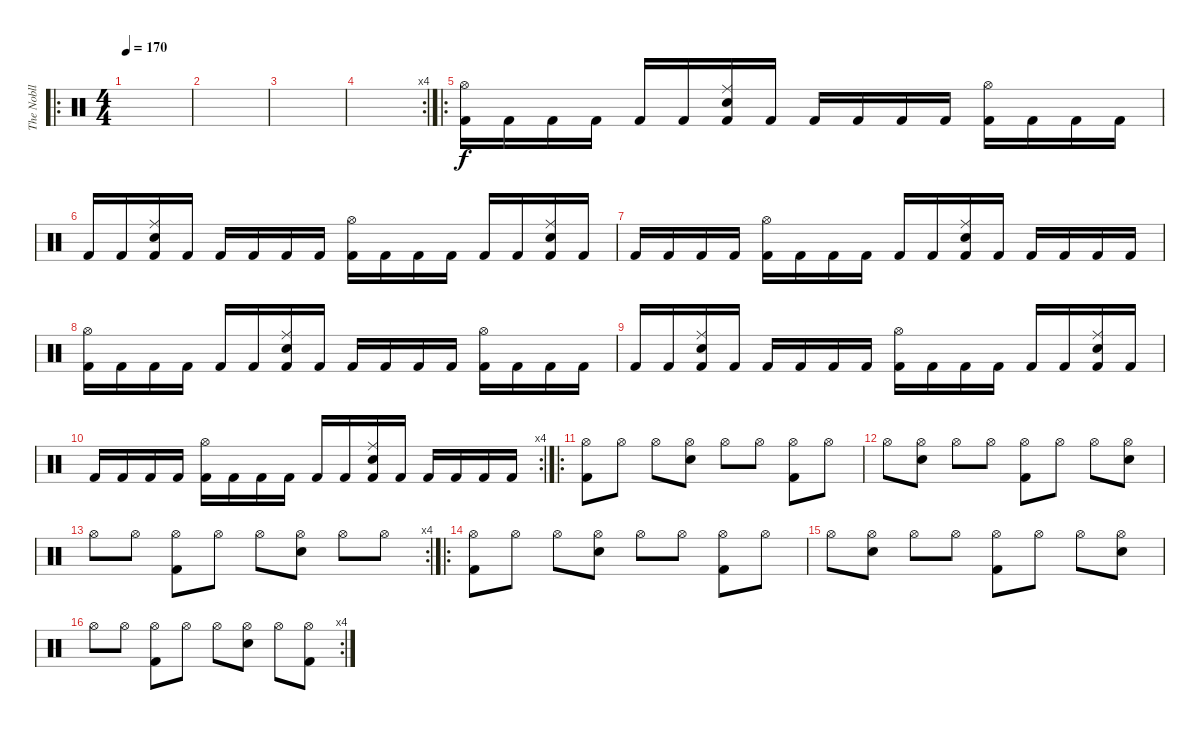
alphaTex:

\track ("The Nobll" "The Nobll") {instrument percussion}
\staff {score}
\articulation defaults
\ro
\ts (4 4)
\tempo 170
\clef neutral
\ks c
|
|
|
\rc 4
|
\ro
("Hi-Hat (open)" "Kick (hit) 2").16 "Kick (hit) 2".16 "Kick (hit) 2".16 "Kick (hit) 2".16 "Kick (hit) 2".16 "Kick (hit) 2".16 ("Ride (middle)" "Snare (hit) 2" "Kick (hit) 2").16 "Kick (hit) 2".16 "Kick (hit) 2".16 "Kick (hit) 2".16 "Kick (hit) 2".16 "Kick (hit) 2".16 ("Hi-Hat (open)" "Kick (hit) 2").16 "Kick (hit) 2".16 "Kick (hit) 2".16 "Kick (hit) 2".16 |
"Kick (hit) 2".16 "Kick (hit) 2".16 ("Ride (middle)" "Snare (hit) 2" "Kick (hit) 2").16 "Kick (hit) 2".16 "Kick (hit) 2".16 "Kick (hit) 2".16 "Kick (hit) 2".16 "Kick (hit) 2".16 ("Hi-Hat (open)" "Kick (hit) 2").16 "Kick (hit) 2".16 "Kick (hit) 2".16 "Kick (hit) 2".16 "Kick (hit) 2".16 "Kick (hit) 2".16 ("Ride (middle)" "Snare (hit) 2" "Kick (hit) 2").16 "Kick (hit) 2".16 |
"Kick (hit) 2".16 "Kick (hit) 2".16 "Kick (hit) 2".16 "Kick (hit) 2".16 ("Hi-Hat (open)" "Kick (hit) 2").16 "Kick (hit) 2".16 "Kick (hit) 2".16 "Kick (hit) 2".16 "Kick (hit) 2".16 "Kick (hit) 2".16 ("Ride (middle)" "Snare (hit) 2" "Kick (hit) 2").16 "Kick (hit) 2".16 "Kick (hit) 2".16 "Kick (hit) 2".16 "Kick (hit) 2".16 "Kick (hit) 2".16 |
("Hi-Hat (open)" "Kick (hit) 2").16 "Kick (hit) 2".16 "Kick (hit) 2".16 "Kick (hit) 2".16 "Kick (hit) 2".16 "Kick (hit) 2".16 ("Ride (middle)" "Snare (hit) 2" "Kick (hit) 2").16 "Kick (hit) 2".16 "Kick (hit) 2".16 "Kick (hit) 2".16 "Kick (hit) 2".16 "Kick (hit) 2".16 ("Hi-Hat (open)" "Kick (hit) 2").16 "Kick (hit) 2".16 "Kick (hit) 2".16 "Kick (hit) 2".16 |
"Kick (hit) 2".16 "Kick (hit) 2".16 ("Ride (middle)" "Snare (hit) 2" "Kick (hit) 2").16 "Kick (hit) 2".16 "Kick (hit) 2".16 "Kick (hit) 2".16 "Kick (hit) 2".16 "Kick (hit) 2".16 ("Hi-Hat (open)" "Kick (hit) 2").16 "Kick (hit) 2".16 "Kick (hit) 2".16 "Kick (hit) 2".16 "Kick (hit) 2".16 "Kick (hit) 2".16 ("Ride (middle)" "Snare (hit) 2" "Kick (hit) 2").16 "Kick (hit) 2".16 |
\rc 4 "Kick (hit) 2".16 "Kick (hit) 2".16 "Kick (hit) 2".16 "Kick (hit) 2".16
("Hi-Hat (open)" "Kick (hit) 2").16 "Kick (hit) 2".16 "Kick (hit) 2".16 "Kick (hit) 2".16 "Kick (hit) 2".16 "Kick (hit) 2".16 ("Ride (middle)" "Snare (hit) 2" "Kick (hit) 2").16 "Kick (hit) 2".16 "Kick (hit) 2".16 "Kick (hit) 2".16 "Kick (hit) 2".16 "Kick (hit) 2".16 |
\ro
("Hi-Hat (open)" "Kick (hit) 2").8 "Hi-Hat (open)".8 "Hi-Hat (open)".8 ("Hi-Hat (open)" "Snare (hit) 2").8 "Hi-Hat (open)".8 "Hi-Hat (open)".8 ("Hi-Hat (open)" "Kick (hit) 2").8 "Hi-Hat (open)".8 |
"Hi-Hat (open)".8 ("Hi-Hat (open)" "Snare (hit) 2").8 "Hi-Hat (open)".8 "Hi-Hat (open)".8 ("Hi-Hat (open)" "Kick (hit) 2").8 "Hi-Hat (open)".8 "Hi-Hat (open)".8 ("Hi-Hat (open)" "Snare (hit) 2").8 |
\rc 4 "Hi-Hat (open)".8 "Hi-Hat (open)".8
("Hi-Hat (open)" "Kick (hit) 2").8 "Hi-Hat (open)".8 "Hi-Hat (open)".8 ("Hi-Hat (open)" "Snare (hit) 2").8 "Hi-Hat (open)".8 "Hi-Hat (open)".8 |
\ro
("Hi-Hat (open)" "Kick (hit) 2").8 "Hi-Hat (open)".8 "Hi-Hat (open)".8 ("Hi-Hat (open)" "Snare (hit) 2").8 "Hi-Hat (open)".8 "Hi-Hat (open)".8 ("Hi-Hat (open)" "Kick (hit) 2").8 "Hi-Hat (open)".8 |
"Hi-Hat (open)".8 ("Hi-Hat (open)" "Snare (hit) 2").8 "Hi-Hat (open)".8 "Hi-Hat (open)".8 ("Hi-Hat (open)" "Kick (hit) 2").8 "Hi-Hat (open)".8 "Hi-Hat (open)".8 ("Hi-Hat (open)" "Snare (hit) 2").8 |
\rc 4 "Hi-Hat (open)".8 "Hi-Hat (open)".8
("Hi-Hat (open)" "Kick (hit) 2").8 "Hi-Hat (open)".8 "Hi-Hat (open)".8 ("Hi-Hat (open)" "Snare (hit) 2").8 "Hi-Hat (open)".8 ("Hi-Hat (open)" "Kick (hit) 2").8
